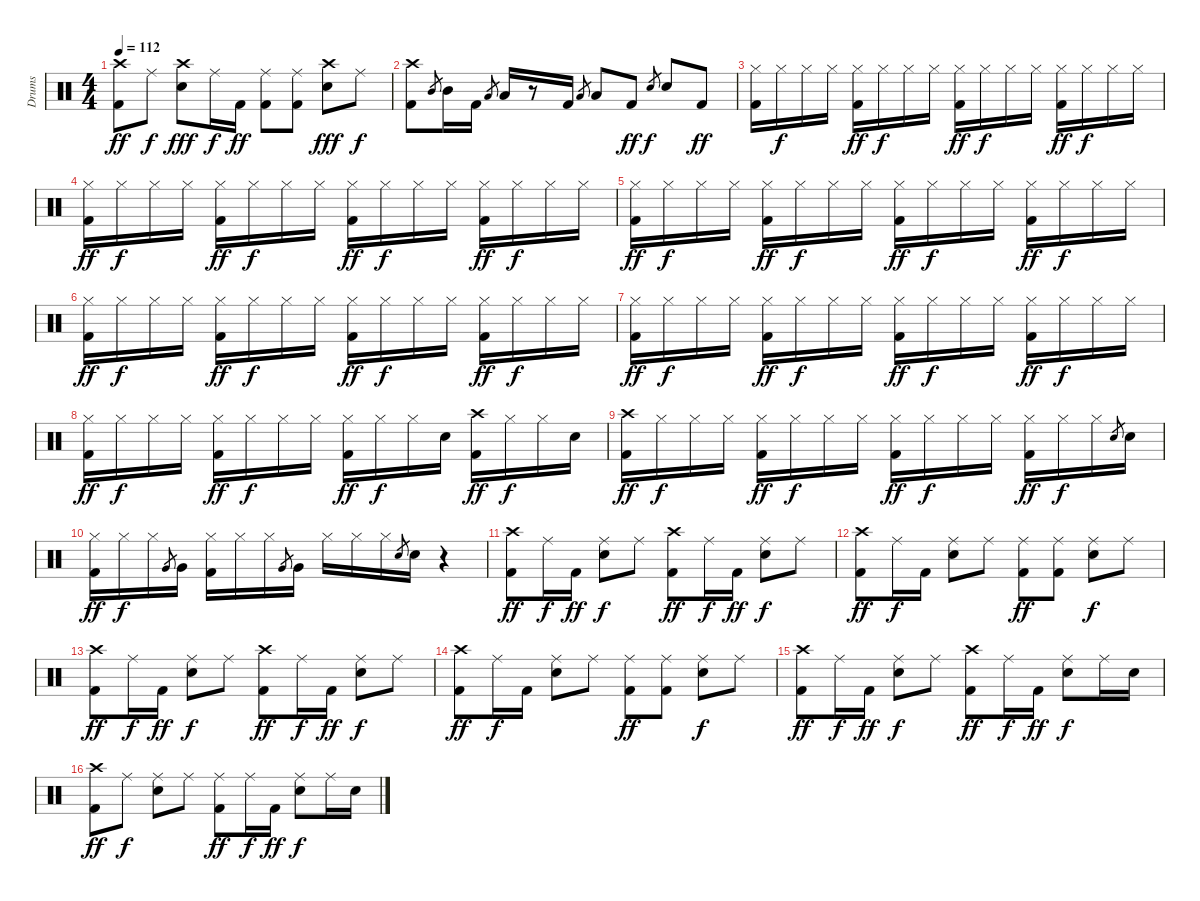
\track ("Drums" "Drums") {instrument percussion}
\staff {score}
\articulation defaults
\ts (4 4)
\tempo 112
\clef neutral
\ks c
("Crash high (hit)" "Kick (hit) 2").8{dy ff} "Ride (middle)".8{dy f} ("Crash high (hit)" "Snare (hit) 2").8{dy fff} "Ride (middle)".16{dy f} "Kick (hit) 2".16{dy ff} ("Ride (middle)" "Kick (hit) 2").8 ("Ride (middle)" "Kick (hit) 2").8 ("Crash high (hit)" "Snare (hit) 2").8{dy fff} "Ride (middle)".8{dy f} |
("Crash high (hit)" "Kick (hit) 2").8 "Mid Tom (hit)".8{gr} "Mid Tom (hit)".16 "Kick (hit) 2".16 "Low Tom (hit)".8{gr} "Low Tom (hit)".16 r.8 "Kick (hit) 2".16 "Low Tom (hit)".8{gr} "Low Tom (hit)".8 "Kick (hit) 2".8{dy ff} "Snare (hit) 2".8{gr dy f} "Snare (hit) 2".8 "Kick (hit) 2".8{dy ff} |
("Hi-Hat (closed)" "Kick (hit) 2").16 "Hi-Hat (closed)".16{dy f} "Hi-Hat (closed)".16 "Hi-Hat (closed)".16 ("Hi-Hat (closed)" "Kick (hit) 2").16{dy ff} "Hi-Hat (closed)".16{dy f} "Hi-Hat (closed)".16 "Hi-Hat (closed)".16 ("Hi-Hat (closed)" "Kick (hit) 2").16{dy ff} "Hi-Hat (closed)".16{dy f} "Hi-Hat (closed)".16 "Hi-Hat (closed)".16 ("Hi-Hat (closed)" "Kick (hit) 2").16{dy ff} "Hi-Hat (closed)".16{dy f} "Hi-Hat (closed)".16 "Hi-Hat (closed)".16 |
("Hi-Hat (closed)" "Kick (hit) 2").16{dy ff} "Hi-Hat (closed)".16{dy f} "Hi-Hat (closed)".16 "Hi-Hat (closed)".16 ("Hi-Hat (closed)" "Kick (hit) 2").16{dy ff} "Hi-Hat (closed)".16{dy f} "Hi-Hat (closed)".16 "Hi-Hat (closed)".16 ("Hi-Hat (closed)" "Kick (hit) 2").16{dy ff} "Hi-Hat (closed)".16{dy f} "Hi-Hat (closed)".16 "Hi-Hat (closed)".16 ("Hi-Hat (closed)" "Kick (hit) 2").16{dy ff} "Hi-Hat (closed)".16{dy f} "Hi-Hat (closed)".16 "Hi-Hat (closed)".16 |
("Hi-Hat (closed)" "Kick (hit) 2").16{dy ff} "Hi-Hat (closed)".16{dy f} "Hi-Hat (closed)".16 "Hi-Hat (closed)".16 ("Hi-Hat (closed)" "Kick (hit) 2").16{dy ff} "Hi-Hat (closed)".16{dy f} "Hi-Hat (closed)".16 "Hi-Hat (closed)".16 ("Hi-Hat (closed)" "Kick (hit) 2").16{dy ff} "Hi-Hat (closed)".16{dy f} "Hi-Hat (closed)".16 "Hi-Hat (closed)".16 ("Hi-Hat (closed)" "Kick (hit) 2").16{dy ff} "Hi-Hat (closed)".16{dy f} "Hi-Hat (closed)".16 "Hi-Hat (closed)".16 |
("Hi-Hat (closed)" "Kick (hit) 2").16{dy ff} "Hi-Hat (closed)".16{dy f} "Hi-Hat (closed)".16 "Hi-Hat (closed)".16 ("Hi-Hat (closed)" "Kick (hit) 2").16{dy ff} "Hi-Hat (closed)".16{dy f} "Hi-Hat (closed)".16 "Hi-Hat (closed)".16 ("Hi-Hat (closed)" "Kick (hit) 2").16{dy ff} "Hi-Hat (closed)".16{dy f} "Hi-Hat (closed)".16 "Hi-Hat (closed)".16 ("Hi-Hat (closed)" "Kick (hit) 2").16{dy ff} "Hi-Hat (closed)".16{dy f} "Hi-Hat (closed)".16 "Hi-Hat (closed)".16 |
("Hi-Hat (closed)" "Kick (hit) 2").16{dy ff} "Hi-Hat (closed)".16{dy f} "Hi-Hat (closed)".16 "Hi-Hat (closed)".16 ("Hi-Hat (closed)" "Kick (hit) 2").16{dy ff} "Hi-Hat (closed)".16{dy f} "Hi-Hat (closed)".16 "Hi-Hat (closed)".16 ("Hi-Hat (closed)" "Kick (hit) 2").16{dy ff} "Hi-Hat (closed)".16{dy f} "Hi-Hat (closed)".16 "Hi-Hat (closed)".16 ("Hi-Hat (closed)" "Kick (hit) 2").16{dy ff} "Hi-Hat (closed)".16{dy f} "Hi-Hat (closed)".16 "Hi-Hat (closed)".16 |
("Hi-Hat (closed)" "Kick (hit) 2").16{dy ff} "Hi-Hat (closed)".16{dy f} "Hi-Hat (closed)".16 "Hi-Hat (closed)".16 ("Hi-Hat (closed)" "Kick (hit) 2").16{dy ff} "Hi-Hat (closed)".16{dy f} "Hi-Hat (closed)".16 "Hi-Hat (closed)".16 ("Hi-Hat (closed)" "Kick (hit) 2").16{dy ff} "Hi-Hat (closed)".16{dy f} "Hi-Hat (closed)".16 "Snare (hit) 2".16 ("Crash high (hit)" "Kick (hit) 2").16{dy ff} "Hi-Hat (closed)".16{dy f} "Hi-Hat (closed)".16 "Snare (hit) 2".16 |
("Crash high (hit)" "Kick (hit) 2").16{dy ff} "Hi-Hat (closed)".16{dy f} "Hi-Hat (closed)".16 "Hi-Hat (closed)".16 ("Hi-Hat (closed)" "Kick (hit) 2").16{dy ff} "Hi-Hat (closed)".16{dy f} "Hi-Hat (closed)".16 "Hi-Hat (closed)".16 ("Hi-Hat (closed)" "Kick (hit) 2").16{dy ff} "Hi-Hat (closed)".16{dy f} "Hi-Hat (closed)".16 "Hi-Hat (closed)".16 ("Hi-Hat (closed)" "Kick (hit) 2").16{dy ff} "Hi-Hat (closed)".16{dy f} "Hi-Hat (closed)".16 "Snare (hit) 2".8{gr} "Snare (hit) 2".16 |
("Hi-Hat (closed)" "Kick (hit) 2").16{dy ff} "Hi-Hat (closed)".16{dy f} "Hi-Hat (closed)".16 "Very Low Tom (hit)".8{gr} "Very Low Tom (hit)".16 ("Hi-Hat (closed)" "Kick (hit) 2").16 "Hi-Hat (closed)".16 "Hi-Hat (closed)".16 "Very Low Tom (hit)".8{gr} "Very Low Tom (hit)".16 "Hi-Hat (closed)".16 "Hi-Hat (closed)".16 "Hi-Hat (closed)".16 "Snare (hit) 2".8{gr} "Snare (hit) 2".16 r.4 |
("Crash high (hit)" "Kick (hit) 2").8{dy ff} "Ride (middle)".16{dy f} "Kick (hit) 2".16{dy ff} ("Ride (middle)" "Snare (hit) 2").8{dy f} "Ride (middle)".8 ("Crash high (hit)" "Kick (hit) 2").8{dy ff} "Ride (middle)".16{dy f} "Kick (hit) 2".16{dy ff} ("Ride (middle)" "Snare (hit) 2").8{dy f} "Ride (middle)".8 |
("Crash high (hit)" "Kick (hit) 2").8{dy ff} "Ride (middle)".16{dy f} "Kick (hit) 2".16 ("Ride (middle)" "Snare (hit) 2").8 "Ride (middle)".8 ("Ride (middle)" "Kick (hit) 2").8{dy ff} ("Ride (middle)" "Kick (hit) 2").8 ("Ride (middle)" "Snare (hit) 2").8{dy f} "Ride (middle)".8 |
("Crash high (hit)" "Kick (hit) 2").8{dy ff} "Ride (middle)".16{dy f} "Kick (hit) 2".16{dy ff} ("Ride (middle)" "Snare (hit) 2").8{dy f} "Ride (middle)".8 ("Crash high (hit)" "Kick (hit) 2").8{dy ff} "Ride (middle)".16{dy f} "Kick (hit) 2".16{dy ff} ("Ride (middle)" "Snare (hit) 2").8{dy f} "Ride (middle)".8 |
("Crash high (hit)" "Kick (hit) 2").8{dy ff} "Ride (middle)".16{dy f} "Kick (hit) 2".16 ("Ride (middle)" "Snare (hit) 2").8 "Ride (middle)".8 ("Ride (middle)" "Kick (hit) 2").8{dy ff} ("Ride (middle)" "Kick (hit) 2").8 ("Ride (middle)" "Snare (hit) 2").8{dy f} "Ride (middle)".8 |
("Crash high (hit)" "Kick (hit) 2").8{dy ff} "Ride (middle)".16{dy f} "Kick (hit) 2".16{dy ff} ("Ride (middle)" "Snare (hit) 2").8{dy f} "Ride (middle)".8 ("Crash high (hit)" "Kick (hit) 2").8{dy ff} "Ride (middle)".16{dy f} "Kick (hit) 2".16{dy ff} ("Ride (middle)" "Snare (hit) 2").8{dy f} "Ride (middle)".16 "Snare (hit) 2".16 |
("Crash high (hit)" "Kick (hit) 2").8{dy ff} "Ride (middle)".8{dy f} ("Ride (middle)" "Snare (hit) 2").8 "Ride (middle)".8 ("Ride (middle)" "Kick (hit) 2").8{dy ff} "Ride (middle)".16{dy f} "Kick (hit) 2".16{dy ff} ("Ride (middle)" "Snare (hit) 2").8{dy f} "Ride (middle)".16 "Snare (hit) 2".16
